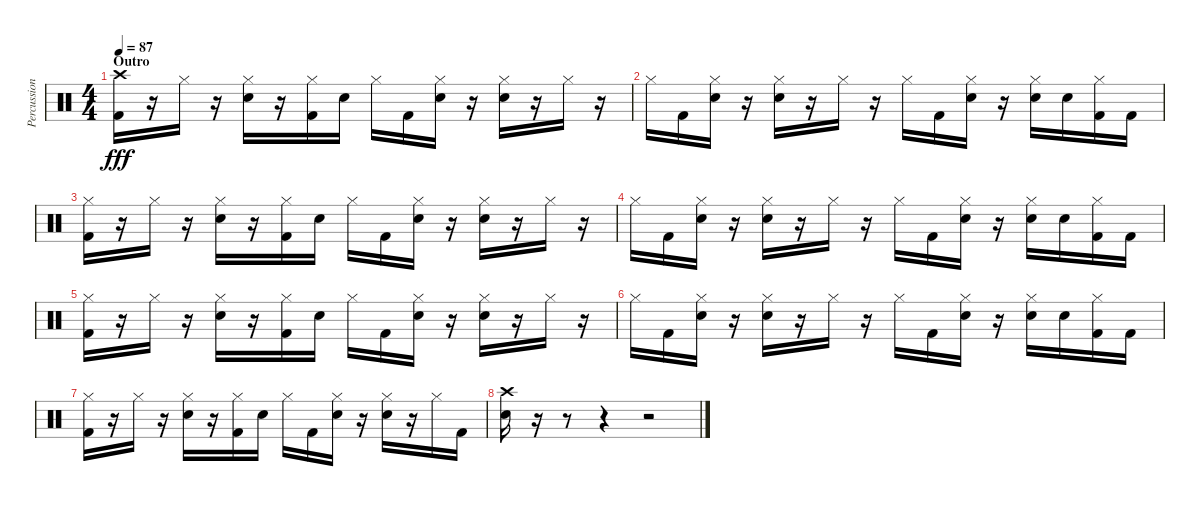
\track ("Percussion" "Percussion") {instrument percussion}
\staff {score}
\articulation defaults
\ts (4 4)
\section ("" "Outro")
\tempo 87
\clef neutral
\ks c
("Crash high (hit)" "Kick (hit) 2").16{dy fff} r.16 "Hi-Hat (closed)".16 r.16 ("Hi-Hat (closed)" "Electric Snare (hit)").16 r.16 ("Hi-Hat (closed)" "Kick (hit) 2").16 "Electric Snare (hit)".16 "Hi-Hat (closed)".16 "Kick (hit) 2".16 ("Hi-Hat (closed)" "Electric Snare (hit)").16 r.16 ("Hi-Hat (closed)" "Electric Snare (hit)").16 r.16 "Hi-Hat (closed)".16 r.16 |
"Hi-Hat (closed)".16 "Kick (hit) 2".16 ("Hi-Hat (closed)" "Electric Snare (hit)").16 r.16 ("Hi-Hat (closed)" "Electric Snare (hit)").16 r.16 "Hi-Hat (closed)".16 r.16 "Hi-Hat (closed)".16 "Kick (hit) 2".16 ("Hi-Hat (closed)" "Electric Snare (hit)").16 r.16 ("Hi-Hat (closed)" "Electric Snare (hit)").16 "Electric Snare (hit)".16 ("Hi-Hat (closed)" "Kick (hit) 2").16 "Kick (hit) 2".16 |
("Hi-Hat (closed)" "Kick (hit) 2").16 r.16 "Hi-Hat (closed)".16 r.16 ("Hi-Hat (closed)" "Electric Snare (hit)").16 r.16 ("Hi-Hat (closed)" "Kick (hit) 2").16 "Electric Snare (hit)".16 "Hi-Hat (closed)".16 "Kick (hit) 2".16 ("Hi-Hat (closed)" "Electric Snare (hit)").16 r.16 ("Hi-Hat (closed)" "Electric Snare (hit)").16 r.16 "Hi-Hat (closed)".16 r.16 |
"Hi-Hat (closed)".16 "Kick (hit) 2".16 ("Hi-Hat (closed)" "Electric Snare (hit)").16 r.16 ("Hi-Hat (closed)" "Electric Snare (hit)").16 r.16 "Hi-Hat (closed)".16 r.16 "Hi-Hat (closed)".16 "Kick (hit) 2".16 ("Hi-Hat (closed)" "Electric Snare (hit)").16 r.16 ("Hi-Hat (closed)" "Electric Snare (hit)").16 "Electric Snare (hit)".16 ("Hi-Hat (closed)" "Kick (hit) 2").16 "Kick (hit) 2".16 |
("Hi-Hat (closed)" "Kick (hit) 2").16 r.16 "Hi-Hat (closed)".16 r.16 ("Hi-Hat (closed)" "Electric Snare (hit)").16 r.16 ("Hi-Hat (closed)" "Kick (hit) 2").16 "Electric Snare (hit)".16 "Hi-Hat (closed)".16 "Kick (hit) 2".16 ("Hi-Hat (closed)" "Electric Snare (hit)").16 r.16 ("Hi-Hat (closed)" "Electric Snare (hit)").16 r.16 "Hi-Hat (closed)".16 r.16 |
"Hi-Hat (closed)".16 "Kick (hit) 2".16 ("Hi-Hat (closed)" "Electric Snare (hit)").16 r.16 ("Hi-Hat (closed)" "Electric Snare (hit)").16 r.16 "Hi-Hat (closed)".16 r.16 "Hi-Hat (closed)".16 "Kick (hit) 2".16 ("Hi-Hat (closed)" "Electric Snare (hit)").16 r.16 ("Hi-Hat (closed)" "Electric Snare (hit)").16 "Electric Snare (hit)".16 ("Hi-Hat (closed)" "Kick (hit) 2").16 "Kick (hit) 2".16 |
("Hi-Hat (closed)" "Kick (hit) 2").16 r.16 "Hi-Hat (closed)".16 r.16 ("Hi-Hat (closed)" "Electric Snare (hit)").16 r.16 ("Hi-Hat (closed)" "Kick (hit) 2").16 "Electric Snare (hit)".16 "Hi-Hat (closed)".16 "Kick (hit) 2".16 ("Hi-Hat (closed)" "Electric Snare (hit)").16 r.16 ("Hi-Hat (closed)" "Electric Snare (hit)").16 r.16 "Hi-Hat (closed)".16 "Kick (hit) 2".16 |
("Crash high (hit)" "Electric Snare (hit)").16 r.16 r.8 r.4 r.2
